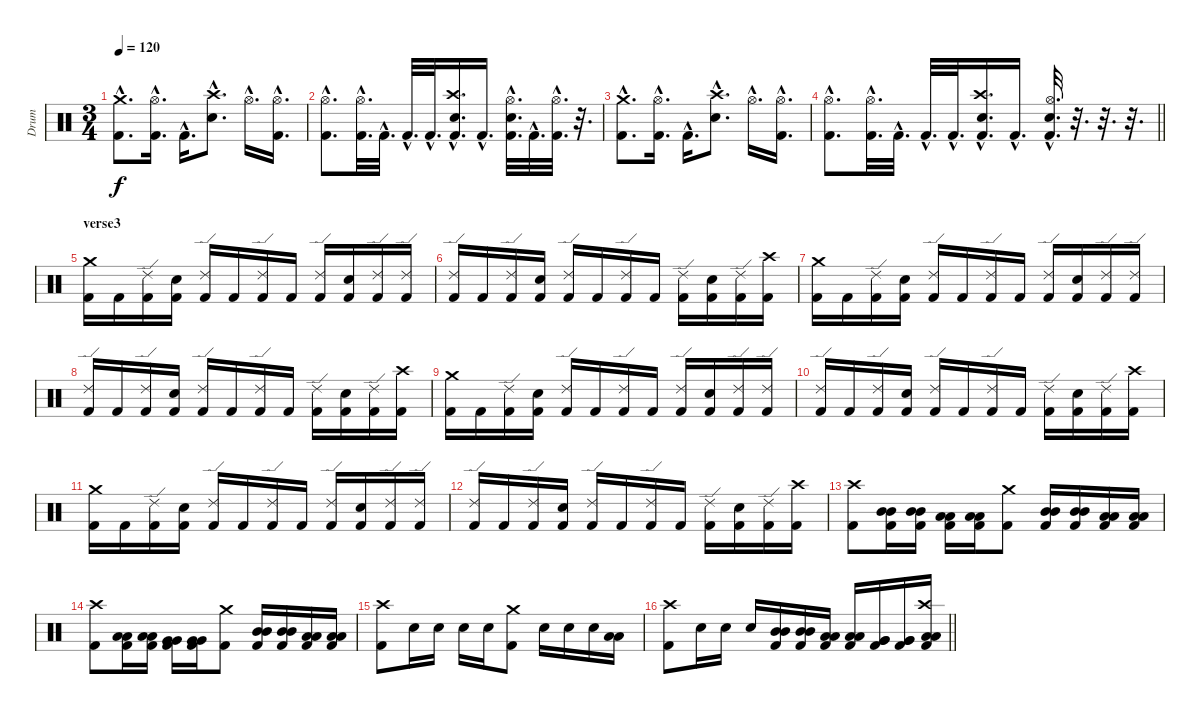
\track ("Drum" "Drum") {instrument percussion}
\staff {score}
\articulation defaults
\ts (3 4)
\tempo 120
\clef neutral
\ks c
("Crash medium (hit)"{hac} "Kick (hit) 2"{hac}).8{d dy f} ("Hi-Hat (open)"{hac} "Kick (hit) 2"{hac}).16{d} "Kick (hit) 2"{hac}.16{d} ("Crash high (hit)"{hac} "Snare (hit) 2"{hac}).8{d} "Hi-Hat (open)"{hac}.16{d} ("Hi-Hat (open)"{hac} "Kick (hit) 2"{hac}).16{d} |
("Hi-Hat (open)"{hac} "Kick (hit) 2"{hac}).8{d} ("Hi-Hat (open)"{hac} "Kick (hit) 2"{hac}).32{d} "Kick (hit) 2"{hac}.32{d} "Kick (hit) 2"{hac}.32{d} "Kick (hit) 2"{hac}.32{d} ("Crash high (hit)"{hac} "Snare (hit) 2"{hac} "Kick (hit) 2"{hac}).16{d} "Kick (hit) 2"{hac}.16{d} ("Hi-Hat (open)"{hac} "Snare (hit) 2"{hac} "Kick (hit) 2"{hac}).32{d} "Kick (hit) 2"{hac}.32{d} ("Hi-Hat (open)"{hac} "Kick (hit) 2"{hac}).32{d} r.32{d} |
("Crash medium (hit)"{hac} "Kick (hit) 2"{hac}).8{d} ("Hi-Hat (open)"{hac} "Kick (hit) 2"{hac}).16{d} "Kick (hit) 2"{hac}.16{d} ("Crash high (hit)"{hac} "Snare (hit) 2"{hac}).8{d} "Hi-Hat (open)"{hac}.16{d} ("Hi-Hat (open)"{hac} "Kick (hit) 2"{hac}).16{d} |
\barLineRight lightlight
("Hi-Hat (open)"{hac} "Kick (hit) 2"{hac}).8{d} ("Hi-Hat (open)"{hac} "Kick (hit) 2"{hac}).32{d} "Kick (hit) 2"{hac}.32{d} "Kick (hit) 2"{hac}.32{d} "Kick (hit) 2"{hac}.32{d} ("Crash high (hit)"{hac} "Snare (hit) 2"{hac} "Kick (hit) 2"{hac}).16{d} "Kick (hit) 2"{hac}.16{d} ("Hi-Hat (open)"{hac} "Snare (hit) 2"{hac} "Kick (hit) 2"{hac}).32{d} r.32{d} r.32{d} r.32{d} |
\section ("" "verse3")
("Crash medium (hit)" "Kick (hit) 2").16 "Kick (hit) 2".16 ("Ride (edge) 2" "Kick (hit) 2").16 ("Snare (hit) 2" "Kick (hit) 2").16 ("Ride (edge) 2" "Kick (hit) 2").16 "Kick (hit) 2".16 ("Ride (edge) 2" "Kick (hit) 2").16 "Kick (hit) 2".16 ("Ride (edge) 2" "Kick (hit) 2").16 ("Snare (hit) 2" "Kick (hit) 2").16 ("Ride (edge) 2" "Kick (hit) 2").16 ("Ride (edge) 2" "Kick (hit) 2").16 |
("Ride (edge) 2" "Kick (hit) 2").16 "Kick (hit) 2".16 ("Ride (edge) 2" "Kick (hit) 2").16 ("Snare (hit) 2" "Kick (hit) 2").16 ("Ride (edge) 2" "Kick (hit) 2").16 "Kick (hit) 2".16 ("Ride (edge) 2" "Kick (hit) 2").16 "Kick (hit) 2".16 ("Ride (edge) 2" "Kick (hit) 2").16 ("Snare (hit) 2" "Kick (hit) 2").16 ("Ride (edge) 2" "Kick (hit) 2").16 ("Crash high (hit)" "Kick (hit) 2").16 |
("Crash medium (hit)" "Kick (hit) 2").16 "Kick (hit) 2".16 ("Ride (edge) 2" "Kick (hit) 2").16 ("Snare (hit) 2" "Kick (hit) 2").16 ("Ride (edge) 2" "Kick (hit) 2").16 "Kick (hit) 2".16 ("Ride (edge) 2" "Kick (hit) 2").16 "Kick (hit) 2".16 ("Ride (edge) 2" "Kick (hit) 2").16 ("Snare (hit) 2" "Kick (hit) 2").16 ("Ride (edge) 2" "Kick (hit) 2").16 ("Ride (edge) 2" "Kick (hit) 2").16 |
("Ride (edge) 2" "Kick (hit) 2").16 "Kick (hit) 2".16 ("Ride (edge) 2" "Kick (hit) 2").16 ("Snare (hit) 2" "Kick (hit) 2").16 ("Ride (edge) 2" "Kick (hit) 2").16 "Kick (hit) 2".16 ("Ride (edge) 2" "Kick (hit) 2").16 "Kick (hit) 2".16 ("Ride (edge) 2" "Kick (hit) 2").16 ("Snare (hit) 2" "Kick (hit) 2").16 ("Ride (edge) 2" "Kick (hit) 2").16 ("Crash high (hit)" "Kick (hit) 2").16 |
("Crash medium (hit)" "Kick (hit) 2").16 "Kick (hit) 2".16 ("Ride (edge) 2" "Kick (hit) 2").16 ("Snare (hit) 2" "Kick (hit) 2").16 ("Ride (edge) 2" "Kick (hit) 2").16 "Kick (hit) 2".16 ("Ride (edge) 2" "Kick (hit) 2").16 "Kick (hit) 2".16 ("Ride (edge) 2" "Kick (hit) 2").16 ("Snare (hit) 2" "Kick (hit) 2").16 ("Ride (edge) 2" "Kick (hit) 2").16 ("Ride (edge) 2" "Kick (hit) 2").16 |
("Ride (edge) 2" "Kick (hit) 2").16 "Kick (hit) 2".16 ("Ride (edge) 2" "Kick (hit) 2").16 ("Snare (hit) 2" "Kick (hit) 2").16 ("Ride (edge) 2" "Kick (hit) 2").16 "Kick (hit) 2".16 ("Ride (edge) 2" "Kick (hit) 2").16 "Kick (hit) 2".16 ("Ride (edge) 2" "Kick (hit) 2").16 ("Snare (hit) 2" "Kick (hit) 2").16 ("Ride (edge) 2" "Kick (hit) 2").16 ("Crash high (hit)" "Kick (hit) 2").16 |
("Crash medium (hit)" "Kick (hit) 2").16 "Kick (hit) 2".16 ("Ride (edge) 2" "Kick (hit) 2").16 ("Snare (hit) 2" "Kick (hit) 2").16 ("Ride (edge) 2" "Kick (hit) 2").16 "Kick (hit) 2".16 ("Ride (edge) 2" "Kick (hit) 2").16 "Kick (hit) 2".16 ("Ride (edge) 2" "Kick (hit) 2").16 ("Snare (hit) 2" "Kick (hit) 2").16 ("Ride (edge) 2" "Kick (hit) 2").16 ("Ride (edge) 2" "Kick (hit) 2").16 |
("Ride (edge) 2" "Kick (hit) 2").16 "Kick (hit) 2".16 ("Ride (edge) 2" "Kick (hit) 2").16 ("Snare (hit) 2" "Kick (hit) 2").16 ("Ride (edge) 2" "Kick (hit) 2").16 "Kick (hit) 2".16 ("Ride (edge) 2" "Kick (hit) 2").16 "Kick (hit) 2".16 ("Ride (edge) 2" "Kick (hit) 2").16 ("Snare (hit) 2" "Kick (hit) 2").16 ("Ride (edge) 2" "Kick (hit) 2").16 ("Crash high (hit)" "Kick (hit) 2").16 |
("Crash high (hit)" "Kick (hit) 2").8 ("Mid Tom (hit)" "Mid Tom (hit)" "Kick (hit) 2").16 ("Mid Tom (hit)" "Mid Tom (hit)" "Kick (hit) 2").16 ("Low Tom (hit)" "Low Tom (hit)" "Kick (hit) 2").16 ("Low Tom (hit)" "Low Tom (hit)" "Kick (hit) 2").16 ("Crash medium (hit)" "Kick (hit) 2").8 ("Mid Tom (hit)" "Mid Tom (hit)" "Kick (hit) 2").16 ("Mid Tom (hit)" "Mid Tom (hit)" "Kick (hit) 2").16 ("Low Tom (hit)" "Low Tom (hit)" "Kick (hit) 2").16 ("Low Tom (hit)" "Low Tom (hit)" "Kick (hit) 2").16 |
("Crash high (hit)" "Kick (hit) 2").8 ("Low Tom (hit)" "Low Tom (hit)" "Kick (hit) 2").16 ("Low Tom (hit)" "Low Tom (hit)" "Kick (hit) 2").16 ("Very Low Tom (hit)" "Very Low Tom (hit)" "Kick (hit) 2").16 ("Very Low Tom (hit)" "Very Low Tom (hit)" "Kick (hit) 2").16 ("Crash medium (hit)" "Kick (hit) 2").8 ("Mid Tom (hit)" "Mid Tom (hit)" "Kick (hit) 2").16 ("Mid Tom (hit)" "Mid Tom (hit)" "Kick (hit) 2").16 ("Low Tom (hit)" "Low Tom (hit)" "Kick (hit) 2").16 ("Low Tom (hit)" "Low Tom (hit)" "Kick (hit) 2").16 |
("Crash high (hit)" "Kick (hit) 2").8 "Snare (hit) 2".16 "Snare (hit) 2".16 "Snare (hit) 2".16 "Snare (hit) 2".16 ("Crash medium (hit)" "Kick (hit) 2").8 "Snare (hit) 2".16 "Snare (hit) 2".16 "Snare (hit) 2".16 ("Low Tom (hit)" "Low Tom (hit)").16 |
\barLineRight lightlight
("Crash high (hit)" "Kick (hit) 2").8 "Snare (hit) 2".16 "Snare (hit) 2".16 "Snare (hit) 2".16 ("Mid Tom (hit)" "Mid Tom (hit)" "Kick (hit) 2").16 ("Mid Tom (hit)" "Mid Tom (hit)" "Kick (hit) 2").16 ("Low Tom (hit)" "Low Tom (hit)" "Kick (hit) 2").16 ("Low Tom (hit)" "Low Tom (hit)" "Kick (hit) 2").16 ("Very Low Tom (hit)" "Very Low Tom (hit)" "Kick (hit) 2").16 ("Very Low Tom (hit)" "Very Low Tom (hit)" "Kick (hit) 2").16 ("Crash high (hit)" "Low Floor Tom (hit)" "Low Floor Tom (hit)" "Kick (hit) 2").16
